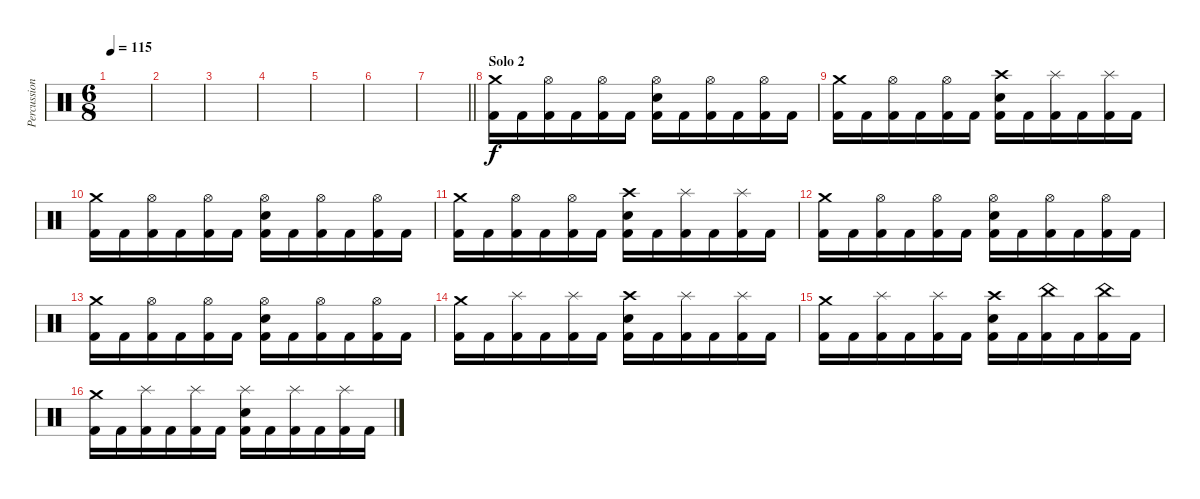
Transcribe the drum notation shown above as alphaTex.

\track ("Percussion" "Percussion") {instrument percussion}
\staff {score}
\articulation defaults
\ts (6 8)
\tempo 115
\clef neutral
\ks c
|
|
|
|
|
|
\barLineRight lightlight
|
\section ("" "Solo 2")
("Crash medium (hit)" "Kick (hit) 2").16 "Kick (hit) 2".16 ("Hi-Hat (open)" "Kick (hit) 2").16 "Kick (hit) 2".16 ("Hi-Hat (open)" "Kick (hit) 2").16 "Kick (hit) 2".16 ("Hi-Hat (open)" "Electric Snare (hit)" "Kick (hit) 2").16 "Kick (hit) 2".16 ("Hi-Hat (open)" "Kick (hit) 2").16 "Kick (hit) 2".16 ("Hi-Hat (open)" "Kick (hit) 2").16 "Kick (hit) 2".16 |
("Crash medium (hit)" "Kick (hit) 2").16 "Kick (hit) 2".16 ("Hi-Hat (open)" "Kick (hit) 2").16 "Kick (hit) 2".16 ("Hi-Hat (open)" "Kick (hit) 2").16 "Kick (hit) 2".16 ("Crash high (hit)" "Electric Snare (hit)" "Kick (hit) 2").16 "Kick (hit) 2".16 ("Splash (hit)" "Kick (hit) 2").16 "Kick (hit) 2".16 ("Splash (hit)" "Kick (hit) 2").16 "Kick (hit) 2".16 |
("Crash medium (hit)" "Kick (hit) 2").16 "Kick (hit) 2".16 ("Hi-Hat (open)" "Kick (hit) 2").16 "Kick (hit) 2".16 ("Hi-Hat (open)" "Kick (hit) 2").16 "Kick (hit) 2".16 ("Hi-Hat (open)" "Electric Snare (hit)" "Kick (hit) 2").16 "Kick (hit) 2".16 ("Hi-Hat (open)" "Kick (hit) 2").16 "Kick (hit) 2".16 ("Hi-Hat (open)" "Kick (hit) 2").16 "Kick (hit) 2".16 |
("Crash medium (hit)" "Kick (hit) 2").16 "Kick (hit) 2".16 ("Hi-Hat (open)" "Kick (hit) 2").16 "Kick (hit) 2".16 ("Hi-Hat (open)" "Kick (hit) 2").16 "Kick (hit) 2".16 ("Crash high (hit)" "Electric Snare (hit)" "Kick (hit) 2").16 "Kick (hit) 2".16 ("Splash (hit)" "Kick (hit) 2").16 "Kick (hit) 2".16 ("Splash (hit)" "Kick (hit) 2").16 "Kick (hit) 2".16 |
("Crash medium (hit)" "Kick (hit) 2").16 "Kick (hit) 2".16 ("Hi-Hat (open)" "Kick (hit) 2").16 "Kick (hit) 2".16 ("Hi-Hat (open)" "Kick (hit) 2").16 "Kick (hit) 2".16 ("Hi-Hat (open)" "Electric Snare (hit)" "Kick (hit) 2").16 "Kick (hit) 2".16 ("Hi-Hat (open)" "Kick (hit) 2").16 "Kick (hit) 2".16 ("Hi-Hat (open)" "Kick (hit) 2").16 "Kick (hit) 2".16 |
("Crash medium (hit)" "Kick (hit) 2").16 "Kick (hit) 2".16 ("Hi-Hat (open)" "Kick (hit) 2").16 "Kick (hit) 2".16 ("Hi-Hat (open)" "Kick (hit) 2").16 "Kick (hit) 2".16 ("Hi-Hat (open)" "Electric Snare (hit)" "Kick (hit) 2").16 "Kick (hit) 2".16 ("Hi-Hat (open)" "Kick (hit) 2").16 "Kick (hit) 2".16 ("Hi-Hat (open)" "Kick (hit) 2").16 "Kick (hit) 2".16 |
("Crash medium (hit)" "Kick (hit) 2").16 "Kick (hit) 2".16 ("Splash (hit)" "Kick (hit) 2").16 "Kick (hit) 2".16 ("Splash (hit)" "Kick (hit) 2").16 "Kick (hit) 2".16 ("Crash high (hit)" "Electric Snare (hit)" "Kick (hit) 2").16 "Kick (hit) 2".16 ("Splash (hit)" "Kick (hit) 2").16 "Kick (hit) 2".16 ("Splash (hit)" "Kick (hit) 2").16 "Kick (hit) 2".16 |
("Crash medium (hit)" "Kick (hit) 2").16 "Kick (hit) 2".16 ("Splash (hit)" "Kick (hit) 2").16 "Kick (hit) 2".16 ("Splash (hit)" "Kick (hit) 2").16 "Kick (hit) 2".16 ("Crash high (hit)" "Electric Snare (hit)" "Kick (hit) 2").16 "Kick (hit) 2".16 ("China (hit)" "Kick (hit) 2").16 "Kick (hit) 2".16 ("China (hit)" "Kick (hit) 2").16 "Kick (hit) 2".16 |
("Crash medium (hit)" "Kick (hit) 2").16 "Kick (hit) 2".16 ("Splash (hit)" "Kick (hit) 2").16 "Kick (hit) 2".16 ("Splash (hit)" "Kick (hit) 2").16 "Kick (hit) 2".16 ("Splash (hit)" "Electric Snare (hit)" "Kick (hit) 2").16 "Kick (hit) 2".16 ("Splash (hit)" "Kick (hit) 2").16 "Kick (hit) 2".16 ("Splash (hit)" "Kick (hit) 2").16 "Kick (hit) 2".16
